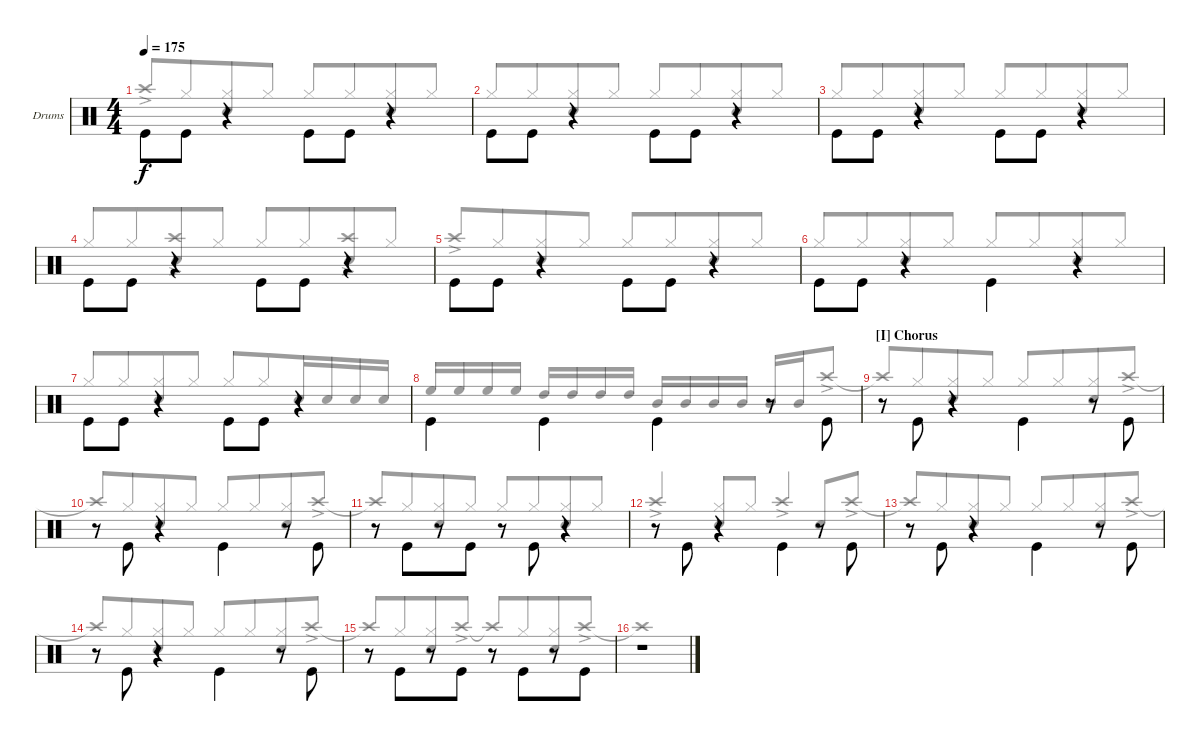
\defaultSystemsLayout 4
\bracketExtendMode groupsimilarinstruments
\firstSystemTrackNameOrientation horizontal
\otherSystemsTrackNameOrientation horizontal
\track ("Drum" "Drums") {instrument percussion}
\staff {score}
\articulation defaults
\voice
\ts (4 4)
\tempo 175
\clef neutral
\scale
1.02648
\ks c "Kick (hit)".8{dy f beam invert} "Kick (hit)".8
r.4 "Kick (hit)".8{beam invert} "Kick (hit)".8 r.4 |
\scale
0.973518 "Kick (hit)".8{beam invert} "Kick (hit)".8 r.4 "Kick (hit)".8{beam invert} "Kick (hit)".8 r.4 |
\scale
1.02648 "Kick (hit)".8{beam invert} "Kick (hit)".8 r.4 "Kick (hit)".8{beam invert} "Kick (hit)".8 r.4 |
\scale
0.973518 "Kick (hit)".8{beam invert} "Kick (hit)".8 r.4 "Kick (hit)".8{beam invert} "Kick (hit)".8 r.4 |
\scale
1.02648 "Kick (hit)".8{beam invert} "Kick (hit)".8 r.4 "Kick (hit)".8{beam invert} "Kick (hit)".8 r.4 |
\scale
0.973518 "Kick (hit)".8{beam invert} "Kick (hit)".8 r.4 "Kick (hit)".4{beam invert} r.4 |
\scale
1.02648 "Kick (hit)".8{beam invert} "Kick (hit)".8 r.4 "Kick (hit)".8{beam invert} "Kick (hit)".8 r.4 |
\scale
0.973518 "Kick (hit)".4{beam invert} "Kick (hit)".4{beam invert} "Kick (hit)".4{beam invert} r.8 "Kick (hit)".8{beam invert} |
\section ("I" "Chorus")
\scale
1.02648 r.8 "Kick (hit)".8{beam invert} r.4 "Kick (hit)".4{beam invert} r.8 "Kick (hit)".8{beam invert} |
\scale
0.973518 r.8 "Kick (hit)".8{beam invert} r.4 "Kick (hit)".4{beam invert} r.8 "Kick (hit)".8{beam invert} |
\scale
1.02648 r.8 "Kick (hit)".8{beam invert beam merge} r.8{beam merge} "Kick (hit)".8 r.8 "Kick (hit)".8{beam invert beam merge} r.4 |
\scale
1.05675 r.8 "Kick (hit)".8{beam invert} r.4 "Kick (hit)".4{beam invert} r.8 "Kick (hit)".8{beam invert} |
\scale
0.943253 r.8 "Kick (hit)".8{beam invert} r.4 "Kick (hit)".4{beam invert} r.8 "Kick (hit)".8{beam invert} |
\scale
1.02648 r.8 "Kick (hit)".8{beam invert} r.4 "Kick (hit)".4{beam invert} r.8 "Kick (hit)".8{beam invert} |
\scale
0.973518 r.8 "Kick (hit)".8{beam invert beam merge} r.8{beam merge} "Kick (hit)".8 r.8 "Kick (hit)".8{beam invert beam merge} r.8{beam merge} "Kick (hit)".8 |
\scale
1.02648 r.1
\voice
\clef neutral
\ottava regular
\simile none
\scale
1.02648
\ks c "Crash high (hit)"{ac}.8{dy f beam invert beam merge} "Hi-Hat (closed)".8{beam merge}
("Hi-Hat (closed)" "Snare (hit) 2").8{beam merge} "Hi-Hat (closed)".8 "Hi-Hat (closed)".8{beam invert beam merge} "Hi-Hat (closed)".8{beam merge} ("Hi-Hat (closed)" "Snare (hit) 2").8{beam merge} "Hi-Hat (closed)".8 |
\scale
0.973518 "Hi-Hat (closed)".8{beam invert beam merge} "Hi-Hat (closed)".8{beam merge} ("Hi-Hat (closed)" "Snare (hit) 2").8{beam merge} "Hi-Hat (closed)".8 "Hi-Hat (closed)".8{beam invert beam merge} "Hi-Hat (closed)".8{beam merge} ("Hi-Hat (closed)" "Snare (hit) 2").8{beam merge} "Hi-Hat (closed)".8 |
\scale
1.02648 "Hi-Hat (closed)".8{beam invert beam merge} "Hi-Hat (closed)".8{beam merge} ("Hi-Hat (closed)" "Snare (hit) 2").8{beam merge} "Hi-Hat (closed)".8 "Hi-Hat (closed)".8{beam invert beam merge} "Hi-Hat (closed)".8{beam merge} ("Hi-Hat (closed)" "Snare (hit) 2").8{beam merge} "Hi-Hat (closed)".8 |
\scale
0.973518 "Hi-Hat (closed)".8{beam invert beam merge} "Hi-Hat (closed)".8{beam merge} ("Snare (hit) 2" "Crash high (hit)"{ac}).8{beam merge} "Hi-Hat (closed)".8 "Hi-Hat (closed)".8{beam invert beam merge} "Hi-Hat (closed)".8{beam merge} ("Snare (hit) 2" "Crash high (hit)"{ac}).8{beam merge} "Hi-Hat (closed)".8 |
\scale
1.02648 "Crash high (hit)"{ac}.8{beam invert beam merge} "Hi-Hat (closed)".8{beam merge} ("Hi-Hat (closed)" "Snare (hit) 2").8{beam merge} "Hi-Hat (closed)".8 "Hi-Hat (closed)".8{beam invert beam merge} "Hi-Hat (closed)".8{beam merge} ("Hi-Hat (closed)" "Snare (hit) 2").8{beam merge} "Hi-Hat (closed)".8 |
\scale
0.973518 "Hi-Hat (closed)".8{beam invert beam merge} "Hi-Hat (closed)".8{beam merge} ("Hi-Hat (closed)" "Snare (hit) 2").8{beam merge} "Hi-Hat (closed)".8 "Hi-Hat (closed)".8{beam invert beam merge} "Hi-Hat (closed)".8{beam merge} ("Hi-Hat (closed)" "Snare (hit) 2").8{beam merge} "Hi-Hat (closed)".8 |
\scale
1.02648 "Hi-Hat (closed)".8{beam invert beam merge} "Hi-Hat (closed)".8{beam merge} ("Hi-Hat (closed)" "Snare (hit) 2").8{beam merge} "Hi-Hat (closed)".8 "Hi-Hat (closed)".8{beam invert beam merge} "Hi-Hat (closed)".8{beam merge} "Snare (hit) 2".16 "Snare (hit) 2".16 "Snare (hit) 2".16 "Snare (hit) 2".16 |
\scale
0.973518 "High Floor Tom (hit)".16{beam invert} "High Floor Tom (hit)".16 "High Floor Tom (hit)".16 "High Floor Tom (hit)".16 "High Tom (hit)".16{beam invert} "High Tom (hit)".16 "High Tom (hit)".16 "High Tom (hit)".16 "Mid Tom (hit)".16{beam invert} "Mid Tom (hit)".16 "Mid Tom (hit)".16 "Mid Tom (hit)".16 "Mid Tom (hit)".16{beam invert} "Mid Tom (hit)".16 "Crash high (hit)"{ac}.8 |
\scale
1.02648 "Crash high (hit)"{t}.8{beam invert beam merge} "Hi-Hat (closed)".8{beam merge} ("Hi-Hat (closed)" "Snare (hit) 2").8{beam merge} "Hi-Hat (closed)".8 "Hi-Hat (closed)".8{beam invert beam merge} "Hi-Hat (closed)".8{beam merge} ("Hi-Hat (closed)" "Snare (hit) 2").8{beam merge} "Crash high (hit)"{ac}.8 |
\scale
0.973518 "Crash high (hit)"{t}.8{beam invert beam merge} "Hi-Hat (closed)".8{beam merge} ("Hi-Hat (closed)" "Snare (hit) 2").8{beam merge} "Hi-Hat (closed)".8 "Hi-Hat (closed)".8{beam invert beam merge} "Hi-Hat (closed)".8{beam merge} ("Hi-Hat (closed)" "Snare (hit) 2").8{beam merge} "Crash high (hit)"{ac}.8 |
\scale
1.02648 "Crash high (hit)"{t}.8{beam invert beam merge} "Hi-Hat (closed)".8{beam merge} ("Hi-Hat (closed)" "Snare (hit) 2").8{beam merge} "Hi-Hat (closed)".8 "Hi-Hat (closed)".8{beam invert beam merge} "Hi-Hat (closed)".8{beam merge} ("Hi-Hat (closed)" "Snare (hit) 2").8{beam merge} "Hi-Hat (closed)".8 |
\scale
1.05675 "Crash high (hit)"{ac}.4{beam invert} ("Hi-Hat (closed)" "Snare (hit) 2").8{beam invert beam merge} "Hi-Hat (closed)".8 "Crash high (hit)"{ac}.4{beam invert} "Snare (hit) 2".8{beam invert} "Crash high (hit)"{ac}.8 |
\scale
0.943253 "Crash high (hit)"{t}.8{beam invert beam merge} "Hi-Hat (closed)".8{beam merge} ("Hi-Hat (closed)" "Snare (hit) 2").8{beam merge} "Hi-Hat (closed)".8 "Hi-Hat (closed)".8{beam invert beam merge} "Hi-Hat (closed)".8{beam merge} ("Hi-Hat (closed)" "Snare (hit) 2").8{beam merge} "Crash high (hit)"{ac}.8 |
\scale
1.02648 "Crash high (hit)"{t}.8{beam invert beam merge} "Hi-Hat (closed)".8{beam merge} ("Hi-Hat (closed)" "Snare (hit) 2").8{beam merge} "Hi-Hat (closed)".8 "Hi-Hat (closed)".8{beam invert beam merge} "Hi-Hat (closed)".8{beam merge} ("Hi-Hat (closed)" "Snare (hit) 2").8{beam merge} "Crash high (hit)"{ac}.8 |
\scale
0.973518 "Crash high (hit)"{t}.8{beam invert beam merge} "Hi-Hat (closed)".8{beam merge} ("Hi-Hat (closed)" "Snare (hit) 2").8{beam merge} "Crash high (hit)"{ac}.8 "Crash high (hit)"{t}.8{beam invert beam merge} "Hi-Hat (closed)".8{beam merge} ("Hi-Hat (closed)" "Snare (hit) 2").8{beam merge} "Crash high (hit)"{ac}.8 |
\scale
1.02648 "Crash high (hit)"{t}.1
